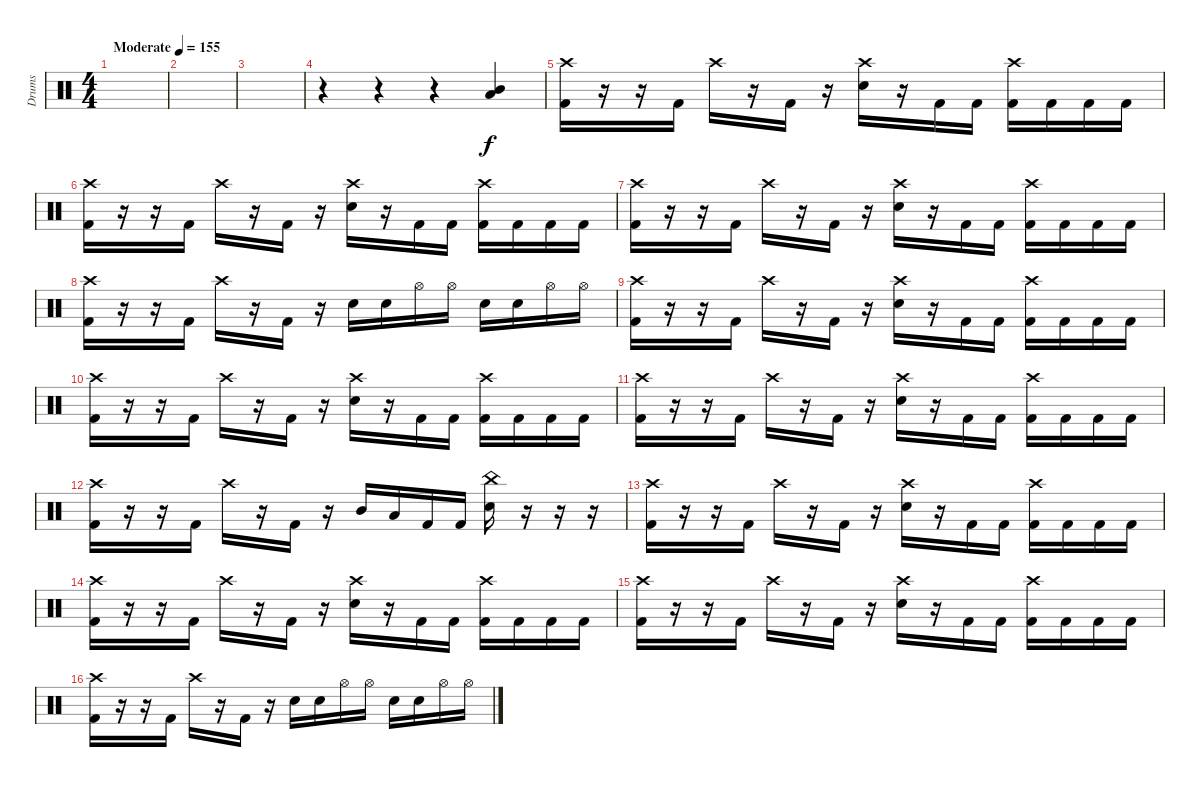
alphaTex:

\track ("Drums" "Drums") {instrument percussion}
\staff {score}
\articulation defaults
\ts (4 4)
\tempo (155 "Moderate")
\clef neutral
\ks c
|
|
|
r.4 r.4 r.4 ("Low Tom (hit)" "Mid Tom (hit)").4 |
("Crash high (hit)" "Kick (hit) 2").16 r.16 r.16 "Kick (hit) 2".16 "Crash high (hit)".16 r.16 "Kick (hit) 2".16 r.16 ("Crash high (hit)" "Electric Snare (hit)").16 r.16 "Kick (hit) 2".16 "Kick (hit) 2".16 ("Crash high (hit)" "Kick (hit) 2").16 "Kick (hit) 2".16 "Kick (hit) 2".16 "Kick (hit) 2".16 |
("Crash high (hit)" "Kick (hit) 2").16 r.16 r.16 "Kick (hit) 2".16 "Crash high (hit)".16 r.16 "Kick (hit) 2".16 r.16 ("Crash high (hit)" "Electric Snare (hit)").16 r.16 "Kick (hit) 2".16 "Kick (hit) 2".16 ("Crash high (hit)" "Kick (hit) 2").16 "Kick (hit) 2".16 "Kick (hit) 2".16 "Kick (hit) 2".16 |
("Crash high (hit)" "Kick (hit) 2").16 r.16 r.16 "Kick (hit) 2".16 "Crash high (hit)".16 r.16 "Kick (hit) 2".16 r.16 ("Crash high (hit)" "Electric Snare (hit)").16 r.16 "Kick (hit) 2".16 "Kick (hit) 2".16 ("Crash high (hit)" "Kick (hit) 2").16 "Kick (hit) 2".16 "Kick (hit) 2".16 "Kick (hit) 2".16 |
("Crash high (hit)" "Kick (hit) 2").16 r.16 r.16 "Kick (hit) 2".16 "Crash high (hit)".16 r.16 "Kick (hit) 2".16 r.16 "Electric Snare (hit)".16 "Electric Snare (hit)".16 "Hi-Hat (open)".16 "Hi-Hat (open)".16 "Electric Snare (hit)".16 "Electric Snare (hit)".16 "Hi-Hat (open)".16 "Hi-Hat (open)".16 |
("Crash high (hit)" "Kick (hit) 2").16 r.16 r.16 "Kick (hit) 2".16 "Crash high (hit)".16 r.16 "Kick (hit) 2".16 r.16 ("Crash high (hit)" "Electric Snare (hit)").16 r.16 "Kick (hit) 2".16 "Kick (hit) 2".16 ("Crash high (hit)" "Kick (hit) 2").16 "Kick (hit) 2".16 "Kick (hit) 2".16 "Kick (hit) 2".16 |
("Crash high (hit)" "Kick (hit) 2").16 r.16 r.16 "Kick (hit) 2".16 "Crash high (hit)".16 r.16 "Kick (hit) 2".16 r.16 ("Crash high (hit)" "Electric Snare (hit)").16 r.16 "Kick (hit) 2".16 "Kick (hit) 2".16 ("Crash high (hit)" "Kick (hit) 2").16 "Kick (hit) 2".16 "Kick (hit) 2".16 "Kick (hit) 2".16 |
("Crash high (hit)" "Kick (hit) 2").16 r.16 r.16 "Kick (hit) 2".16 "Crash high (hit)".16 r.16 "Kick (hit) 2".16 r.16 ("Crash high (hit)" "Electric Snare (hit)").16 r.16 "Kick (hit) 2".16 "Kick (hit) 2".16 ("Crash high (hit)" "Kick (hit) 2").16 "Kick (hit) 2".16 "Kick (hit) 2".16 "Kick (hit) 2".16 |
("Crash high (hit)" "Kick (hit) 2").16 r.16 r.16 "Kick (hit) 2".16 "Crash high (hit)".16 r.16 "Kick (hit) 2".16 r.16 "Mid Tom (hit)".16 "Low Tom (hit)".16 "Kick (hit) 2".16 "Kick (hit) 2".16 ("China (hit)" "Electric Snare (hit)").16 r.16 r.16 r.16 |
("Crash high (hit)" "Kick (hit) 2").16 r.16 r.16 "Kick (hit) 2".16 "Crash high (hit)".16 r.16 "Kick (hit) 2".16 r.16 ("Crash high (hit)" "Electric Snare (hit)").16 r.16 "Kick (hit) 2".16 "Kick (hit) 2".16 ("Crash high (hit)" "Kick (hit) 2").16 "Kick (hit) 2".16 "Kick (hit) 2".16 "Kick (hit) 2".16 |
("Crash high (hit)" "Kick (hit) 2").16 r.16 r.16 "Kick (hit) 2".16 "Crash high (hit)".16 r.16 "Kick (hit) 2".16 r.16 ("Crash high (hit)" "Electric Snare (hit)").16 r.16 "Kick (hit) 2".16 "Kick (hit) 2".16 ("Crash high (hit)" "Kick (hit) 2").16 "Kick (hit) 2".16 "Kick (hit) 2".16 "Kick (hit) 2".16 |
("Crash high (hit)" "Kick (hit) 2").16 r.16 r.16 "Kick (hit) 2".16 "Crash high (hit)".16 r.16 "Kick (hit) 2".16 r.16 ("Crash high (hit)" "Electric Snare (hit)").16 r.16 "Kick (hit) 2".16 "Kick (hit) 2".16 ("Crash high (hit)" "Kick (hit) 2").16 "Kick (hit) 2".16 "Kick (hit) 2".16 "Kick (hit) 2".16 |
("Crash high (hit)" "Kick (hit) 2").16 r.16 r.16 "Kick (hit) 2".16 "Crash high (hit)".16 r.16 "Kick (hit) 2".16 r.16 "Electric Snare (hit)".16 "Electric Snare (hit)".16 "Hi-Hat (open)".16 "Hi-Hat (open)".16 "Electric Snare (hit)".16 "Electric Snare (hit)".16 "Hi-Hat (open)".16 "Hi-Hat (open)".16
